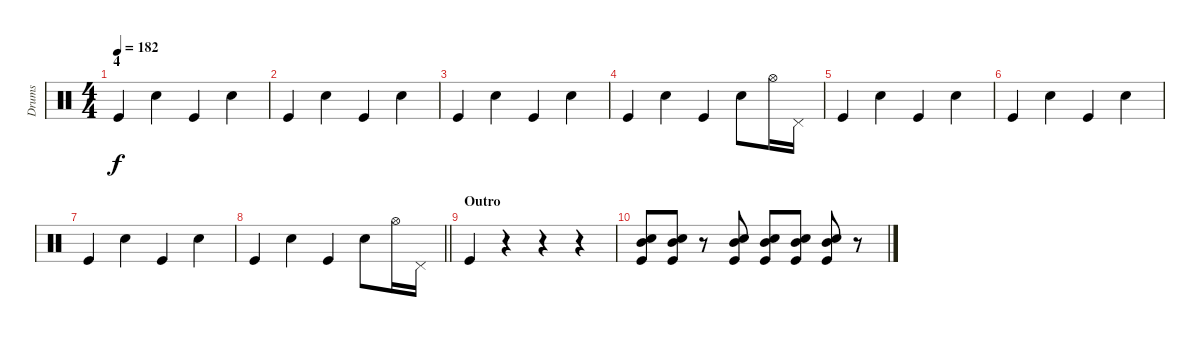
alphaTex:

\track ("Drums" "Drums") {instrument percussion}
\staff {score}
\articulation defaults
\ts (4 4)
\section ("" "4")
\tempo 182
\clef neutral
\ks c "Kick (hit)".4{dy f} "Electric Snare (hit)".4 "Kick (hit)".4 "Electric Snare (hit)".4
|
"Kick (hit)".4 "Electric Snare (hit)".4 "Kick (hit)".4 "Electric Snare (hit)".4 |
"Kick (hit)".4 "Electric Snare (hit)".4 "Kick (hit)".4 "Electric Snare (hit)".4 |
"Kick (hit)".4 "Electric Snare (hit)".4 "Kick (hit)".4 "Electric Snare (hit)".8 "Hi-Hat (open)".16 "Pedal Hi-Hat (hit)".16 |
"Kick (hit)".4 "Electric Snare (hit)".4 "Kick (hit)".4 "Electric Snare (hit)".4 |
"Kick (hit)".4 "Electric Snare (hit)".4 "Kick (hit)".4 "Electric Snare (hit)".4 |
"Kick (hit)".4 "Electric Snare (hit)".4 "Kick (hit)".4 "Electric Snare (hit)".4 |
\barLineRight lightlight "Kick (hit)".4 "Electric Snare (hit)".4 "Kick (hit)".4 "Electric Snare (hit)".8 "Hi-Hat (open)".16 "Pedal Hi-Hat (hit)".16
|
\section ("" "Outro")
"Kick (hit)".4 r.4 r.4 r.4 |
("Mid Tom (hit)" "Electric Snare (hit)" "Kick (hit)").8 ("Mid Tom (hit)" "Electric Snare (hit)" "Kick (hit)").8 r.8 ("Mid Tom (hit)" "Electric Snare (hit)" "Kick (hit)").8 ("Mid Tom (hit)" "Electric Snare (hit)" "Kick (hit)").8 ("Mid Tom (hit)" "Electric Snare (hit)" "Kick (hit)").8 ("Mid Tom (hit)" "Electric Snare (hit)" "Kick (hit)").8 r.8
